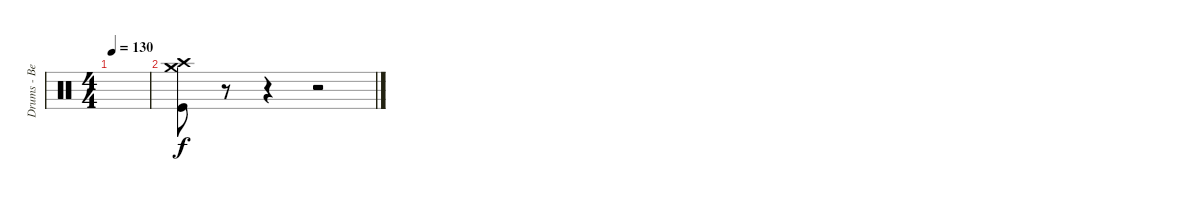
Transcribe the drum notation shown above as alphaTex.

\track ("Drums - Ben Johnston" "Drums - Be") {instrument percussion}
\staff {score}
\articulation defaults
\ts (4 4)
\tempo 130
\clef neutral
\ks c
|
("Crash high (hit)" "Crash medium (hit)" "Kick (hit)").8 r.8 r.4 r.2
